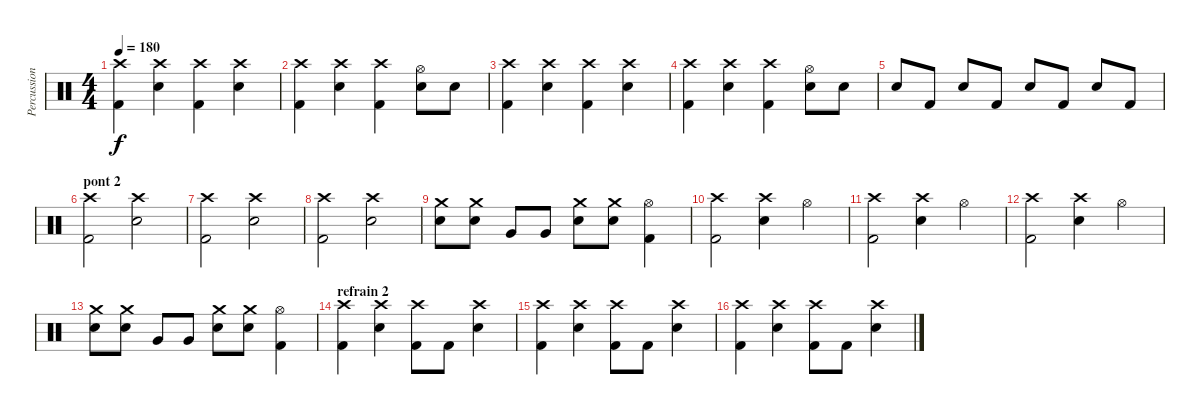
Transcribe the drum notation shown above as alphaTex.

\track ("Percussions" "Percussion") {instrument percussion}
\staff {score}
\articulation defaults
\ts (4 4)
\tempo 180
\clef neutral
\ks c
("Crash high (hit)" "Kick (hit) 2").4{dy f} ("Crash high (hit)" "Snare (hit) 2").4 ("Crash high (hit)" "Kick (hit) 2").4 ("Crash high (hit)" "Snare (hit) 2").4 |
("Crash high (hit)" "Kick (hit) 2").4 ("Crash high (hit)" "Snare (hit) 2").4 ("Crash high (hit)" "Kick (hit) 2").4 ("Hi-Hat (open)" "Snare (hit) 2").8 "Snare (hit) 2".8 |
("Crash high (hit)" "Kick (hit) 2").4 ("Crash high (hit)" "Snare (hit) 2").4 ("Crash high (hit)" "Kick (hit) 2").4 ("Crash high (hit)" "Snare (hit) 2").4 |
("Crash high (hit)" "Kick (hit) 2").4 ("Crash high (hit)" "Snare (hit) 2").4 ("Crash high (hit)" "Kick (hit) 2").4 ("Hi-Hat (open)" "Snare (hit) 2").8 "Snare (hit) 2".8 |
"Snare (hit) 2".8 "Kick (hit) 2".8 "Snare (hit) 2".8 "Kick (hit) 2".8 "Snare (hit) 2".8 "Kick (hit) 2".8 "Snare (hit) 2".8 "Kick (hit) 2".8 |
\section ("" "pont 2")
("Crash high (hit)" "Kick (hit) 2").2 ("Crash high (hit)" "Snare (hit) 2").2 |
("Crash high (hit)" "Kick (hit) 2").2 ("Crash high (hit)" "Snare (hit) 2").2 |
("Crash high (hit)" "Kick (hit) 2").2 ("Crash high (hit)" "Snare (hit) 2").2 |
("Crash medium (hit)" "Snare (hit) 2").8 ("Crash medium (hit)" "Snare (hit) 2").8 "Very Low Tom (hit)".8 "Very Low Tom (hit)".8 ("Crash medium (hit)" "Snare (hit) 2").8 ("Crash medium (hit)" "Snare (hit) 2").8 ("Hi-Hat (open)" "Kick (hit) 2").4 |
("Crash high (hit)" "Kick (hit) 2").2 ("Crash high (hit)" "Snare (hit) 2").4 "Hi-Hat (open)".4 |
("Crash high (hit)" "Kick (hit) 2").2 ("Crash high (hit)" "Snare (hit) 2").4 "Hi-Hat (open)".4 |
("Crash high (hit)" "Kick (hit) 2").2 ("Crash high (hit)" "Snare (hit) 2").4 "Hi-Hat (open)".4 |
("Crash medium (hit)" "Snare (hit) 2").8 ("Crash medium (hit)" "Snare (hit) 2").8 "Very Low Tom (hit)".8 "Very Low Tom (hit)".8 ("Crash medium (hit)" "Snare (hit) 2").8 ("Crash medium (hit)" "Snare (hit) 2").8 ("Hi-Hat (open)" "Kick (hit) 2").4 |
\section ("" "refrain 2")
("Crash high (hit)" "Kick (hit) 2").4 ("Crash high (hit)" "Snare (hit) 2").4 ("Crash high (hit)" "Kick (hit) 2").8 "Kick (hit) 2".8 ("Crash high (hit)" "Snare (hit) 2").4 |
("Crash high (hit)" "Kick (hit) 2").4 ("Crash high (hit)" "Snare (hit) 2").4 ("Crash high (hit)" "Kick (hit) 2").8 "Kick (hit) 2".8 ("Crash high (hit)" "Snare (hit) 2").4 |
("Crash high (hit)" "Kick (hit) 2").4 ("Crash high (hit)" "Snare (hit) 2").4 ("Crash high (hit)" "Kick (hit) 2").8 "Kick (hit) 2".8 ("Crash high (hit)" "Snare (hit) 2").4
